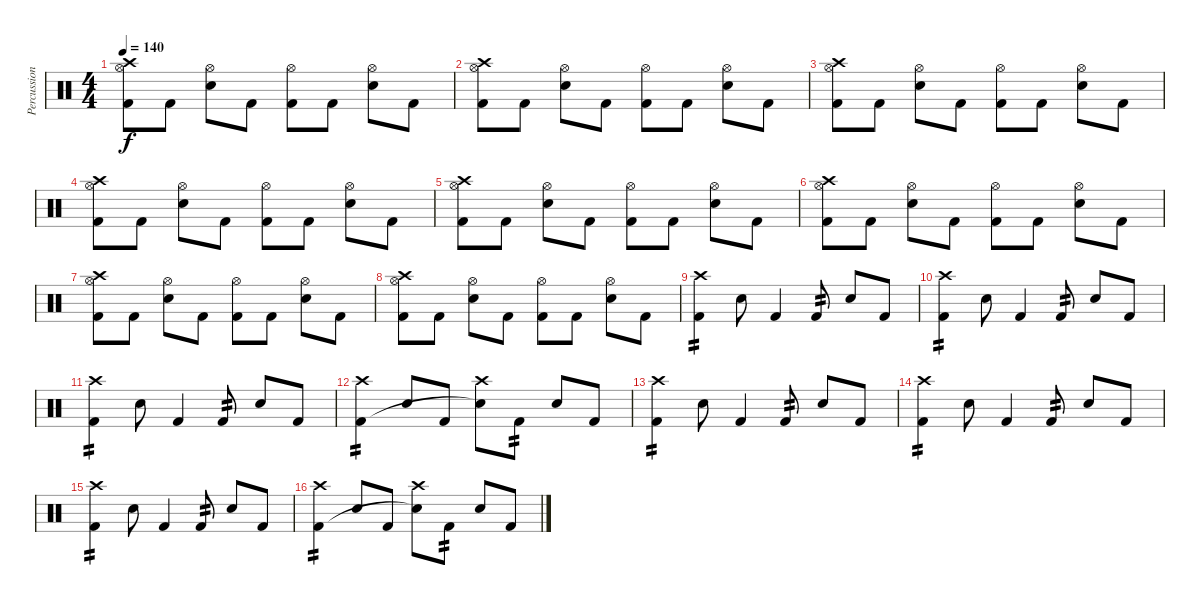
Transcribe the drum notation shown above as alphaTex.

\track ("Percussion" "Percussion") {instrument percussion}
\staff {score}
\articulation defaults
\ts (4 4)
\tempo 140
\clef neutral
\ks c
("Hi-Hat (open)" "Crash high (hit)" "Kick (hit) 2").8{dy f} "Kick (hit) 2".8 ("Hi-Hat (open)" "Electric Snare (hit)").8 "Kick (hit) 2".8 ("Hi-Hat (open)" "Kick (hit) 2").8 "Kick (hit) 2".8 ("Hi-Hat (open)" "Electric Snare (hit)").8 "Kick (hit) 2".8 |
("Hi-Hat (open)" "Crash high (hit)" "Kick (hit) 2").8 "Kick (hit) 2".8 ("Hi-Hat (open)" "Electric Snare (hit)").8 "Kick (hit) 2".8 ("Hi-Hat (open)" "Kick (hit) 2").8 "Kick (hit) 2".8 ("Hi-Hat (open)" "Electric Snare (hit)").8 "Kick (hit) 2".8 |
("Hi-Hat (open)" "Crash high (hit)" "Kick (hit) 2").8 "Kick (hit) 2".8 ("Hi-Hat (open)" "Electric Snare (hit)").8 "Kick (hit) 2".8 ("Hi-Hat (open)" "Kick (hit) 2").8 "Kick (hit) 2".8 ("Hi-Hat (open)" "Electric Snare (hit)").8 "Kick (hit) 2".8 |
("Hi-Hat (open)" "Crash high (hit)" "Kick (hit) 2").8 "Kick (hit) 2".8 ("Hi-Hat (open)" "Electric Snare (hit)").8 "Kick (hit) 2".8 ("Hi-Hat (open)" "Kick (hit) 2").8 "Kick (hit) 2".8 ("Hi-Hat (open)" "Electric Snare (hit)").8 "Kick (hit) 2".8 |
("Hi-Hat (open)" "Crash high (hit)" "Kick (hit) 2").8 "Kick (hit) 2".8 ("Hi-Hat (open)" "Electric Snare (hit)").8 "Kick (hit) 2".8 ("Hi-Hat (open)" "Kick (hit) 2").8 "Kick (hit) 2".8 ("Hi-Hat (open)" "Electric Snare (hit)").8 "Kick (hit) 2".8 |
("Hi-Hat (open)" "Crash high (hit)" "Kick (hit) 2").8 "Kick (hit) 2".8 ("Hi-Hat (open)" "Electric Snare (hit)").8 "Kick (hit) 2".8 ("Hi-Hat (open)" "Kick (hit) 2").8 "Kick (hit) 2".8 ("Hi-Hat (open)" "Electric Snare (hit)").8 "Kick (hit) 2".8 |
("Hi-Hat (open)" "Crash high (hit)" "Kick (hit) 2").8 "Kick (hit) 2".8 ("Hi-Hat (open)" "Electric Snare (hit)").8 "Kick (hit) 2".8 ("Hi-Hat (open)" "Kick (hit) 2").8 "Kick (hit) 2".8 ("Hi-Hat (open)" "Electric Snare (hit)").8 "Kick (hit) 2".8 |
("Hi-Hat (open)" "Crash high (hit)" "Kick (hit) 2").8 "Kick (hit) 2".8 ("Hi-Hat (open)" "Electric Snare (hit)").8 "Kick (hit) 2".8 ("Hi-Hat (open)" "Kick (hit) 2").8 "Kick (hit) 2".8 ("Hi-Hat (open)" "Electric Snare (hit)").8 "Kick (hit) 2".8 |
("Crash high (hit)" "Kick (hit) 2").4{tp 2} "Electric Snare (hit)".8 "Kick (hit) 2".4 "Kick (hit) 2".8{tp 2} "Electric Snare (hit)".8 "Kick (hit) 2".8 |
("Crash high (hit)" "Kick (hit) 2").4{tp 2} "Electric Snare (hit)".8 "Kick (hit) 2".4 "Kick (hit) 2".8{tp 2} "Electric Snare (hit)".8 "Kick (hit) 2".8 |
("Crash high (hit)" "Kick (hit) 2").4{tp 2} "Electric Snare (hit)".8 "Kick (hit) 2".4 "Kick (hit) 2".8{tp 2} "Electric Snare (hit)".8 "Kick (hit) 2".8 |
("Crash high (hit)" "Kick (hit) 2").4{tp 2} "Electric Snare (hit)".8 "Kick (hit) 2".8 ("Crash high (hit)" "Snare (hit)"{t}).8 "Kick (hit) 2".8{tp 2} "Electric Snare (hit)".8 "Kick (hit) 2".8 |
("Crash high (hit)" "Kick (hit) 2").4{tp 2} "Electric Snare (hit)".8 "Kick (hit) 2".4 "Kick (hit) 2".8{tp 2} "Electric Snare (hit)".8 "Kick (hit) 2".8 |
("Crash high (hit)" "Kick (hit) 2").4{tp 2} "Electric Snare (hit)".8 "Kick (hit) 2".4 "Kick (hit) 2".8{tp 2} "Electric Snare (hit)".8 "Kick (hit) 2".8 |
("Crash high (hit)" "Kick (hit) 2").4{tp 2} "Electric Snare (hit)".8 "Kick (hit) 2".4 "Kick (hit) 2".8{tp 2} "Electric Snare (hit)".8 "Kick (hit) 2".8 |
("Crash high (hit)" "Kick (hit) 2").4{tp 2} "Electric Snare (hit)".8 "Kick (hit) 2".8 ("Crash high (hit)" "Snare (hit)"{t}).8 "Kick (hit) 2".8{tp 2} "Electric Snare (hit)".8 "Kick (hit) 2".8
